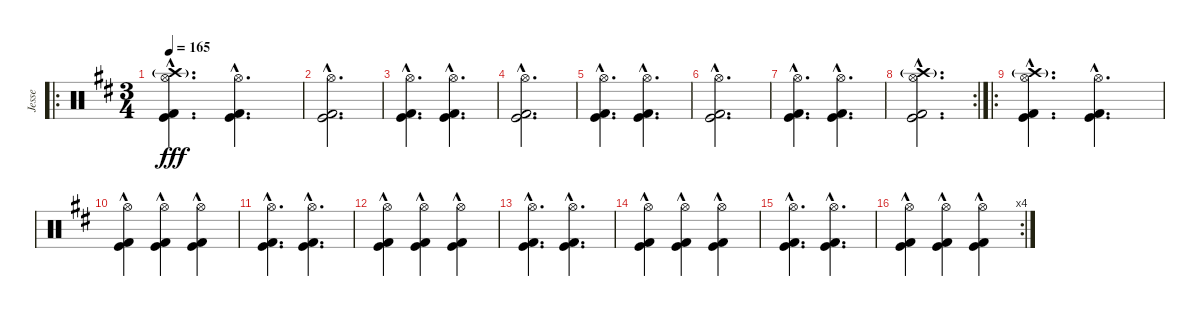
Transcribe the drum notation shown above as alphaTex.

\track ("Jesse" "Jesse") {instrument percussion}
\staff {score}
\articulation defaults
\ro
\ts (3 4)
\tempo 165
\clef neutral
\ks d
("Crash high (hit)"{g} "Hi-Hat (open)" "Kick (hit)"{hac} "Kick (hit) 2"{hac}).4{d dy fff} ("Hi-Hat (open)" "Kick (hit)"{hac} "Kick (hit) 2"{hac}).4{d} |
("Hi-Hat (open)" "Kick (hit)"{hac} "Kick (hit) 2"{hac}).2{d} |
("Hi-Hat (open)" "Kick (hit)"{hac} "Kick (hit) 2"{hac}).4{d} ("Hi-Hat (open)" "Kick (hit)"{hac} "Kick (hit) 2"{hac}).4{d} |
("Hi-Hat (open)" "Kick (hit)"{hac} "Kick (hit) 2"{hac}).2{d} |
("Hi-Hat (open)" "Kick (hit)"{hac} "Kick (hit) 2"{hac}).4{d} ("Hi-Hat (open)" "Kick (hit)"{hac} "Kick (hit) 2"{hac}).4{d} |
("Hi-Hat (open)" "Kick (hit)"{hac} "Kick (hit) 2"{hac}).2{d} |
("Hi-Hat (open)" "Kick (hit)"{hac} "Kick (hit) 2"{hac}).4{d} ("Hi-Hat (open)" "Kick (hit)"{hac} "Kick (hit) 2"{hac}).4{d} |
\rc 2
("Crash high (hit)"{g} "Hi-Hat (open)" "Kick (hit)"{hac} "Kick (hit) 2"{hac}).2{d} |
\ro
("Crash high (hit)"{g} "Hi-Hat (open)" "Kick (hit)"{hac} "Kick (hit) 2"{hac}).4{d} ("Hi-Hat (open)" "Kick (hit)"{hac} "Kick (hit) 2"{hac}).4{d} |
("Hi-Hat (open)" "Kick (hit)"{hac} "Kick (hit) 2"{hac}).4 ("Hi-Hat (open)" "Kick (hit)"{hac} "Kick (hit) 2"{hac}).4 ("Hi-Hat (open)" "Kick (hit)"{hac} "Kick (hit) 2"{hac}).4 |
("Hi-Hat (open)" "Kick (hit)"{hac} "Kick (hit) 2"{hac}).4{d} ("Hi-Hat (open)" "Kick (hit)"{hac} "Kick (hit) 2"{hac}).4{d} |
("Hi-Hat (open)" "Kick (hit)"{hac} "Kick (hit) 2"{hac}).4 ("Hi-Hat (open)" "Kick (hit)"{hac} "Kick (hit) 2"{hac}).4 ("Hi-Hat (open)" "Kick (hit)"{hac} "Kick (hit) 2"{hac}).4 |
("Hi-Hat (open)" "Kick (hit)"{hac} "Kick (hit) 2"{hac}).4{d} ("Hi-Hat (open)" "Kick (hit)"{hac} "Kick (hit) 2"{hac}).4{d} |
("Hi-Hat (open)" "Kick (hit)"{hac} "Kick (hit) 2"{hac}).4 ("Hi-Hat (open)" "Kick (hit)"{hac} "Kick (hit) 2"{hac}).4 ("Hi-Hat (open)" "Kick (hit)"{hac} "Kick (hit) 2"{hac}).4 |
("Hi-Hat (open)" "Kick (hit)"{hac} "Kick (hit) 2"{hac}).4{d} ("Hi-Hat (open)" "Kick (hit)"{hac} "Kick (hit) 2"{hac}).4{d} |
\rc 4
("Hi-Hat (open)" "Kick (hit)"{hac} "Kick (hit) 2"{hac}).4 ("Hi-Hat (open)" "Kick (hit)"{hac} "Kick (hit) 2"{hac}).4 ("Hi-Hat (open)" "Kick (hit)"{hac} "Kick (hit) 2"{hac}).4
